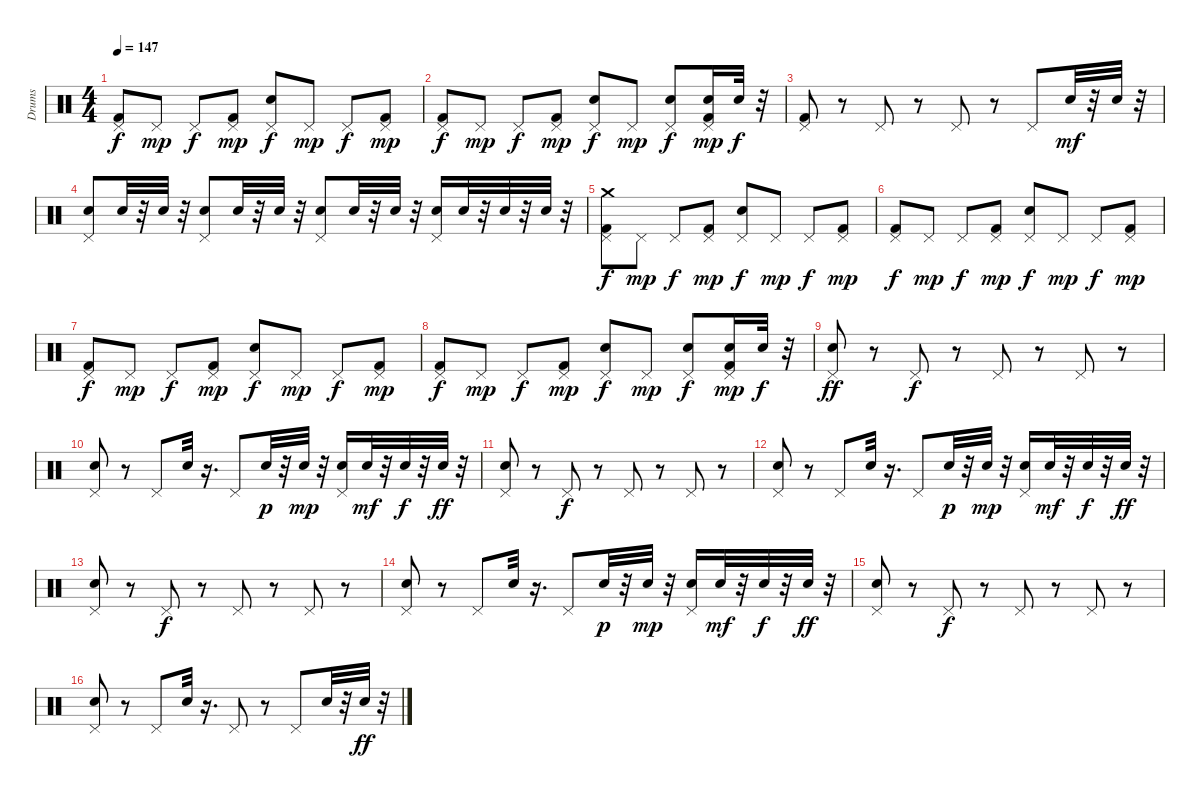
\track ("Drums" "Drums") {instrument percussion}
\staff {score}
\articulation defaults
\ts (4 4)
\tempo 147
\clef neutral
\ks c
("Pedal Hi-Hat (hit)" "Kick (hit) 2").8{dy f} "Pedal Hi-Hat (hit)".8{dy mp} "Pedal Hi-Hat (hit)".8{dy f} ("Pedal Hi-Hat (hit)" "Kick (hit) 2").8{dy mp} ("Pedal Hi-Hat (hit)" "Snare (hit) 2").8{dy f} "Pedal Hi-Hat (hit)".8{dy mp} "Pedal Hi-Hat (hit)".8{dy f} ("Pedal Hi-Hat (hit)" "Kick (hit) 2").8{dy mp} |
("Pedal Hi-Hat (hit)" "Kick (hit) 2").8{dy f} "Pedal Hi-Hat (hit)".8{dy mp} "Pedal Hi-Hat (hit)".8{dy f} ("Pedal Hi-Hat (hit)" "Kick (hit) 2").8{dy mp} ("Pedal Hi-Hat (hit)" "Snare (hit) 2").8{dy f} "Pedal Hi-Hat (hit)".8{dy mp} ("Pedal Hi-Hat (hit)" "Snare (hit) 2").8{dy f} ("Pedal Hi-Hat (hit)" "Snare (hit) 2" "Kick (hit) 2").16{dy mp} "Snare (hit) 2".32{dy f} r.32 |
("Pedal Hi-Hat (hit)" "Kick (hit) 2").8 r.8 "Pedal Hi-Hat (hit)".8 r.8 "Pedal Hi-Hat (hit)".8 r.8 "Pedal Hi-Hat (hit)".8 "Snare (hit) 2".32{dy mf} r.32 "Snare (hit) 2".32 r.32 |
("Pedal Hi-Hat (hit)" "Snare (hit) 2").8 "Snare (hit) 2".32 r.32 "Snare (hit) 2".32 r.32 ("Pedal Hi-Hat (hit)" "Snare (hit) 2").8 "Snare (hit) 2".32 r.32 "Snare (hit) 2".32 r.32 ("Pedal Hi-Hat (hit)" "Snare (hit) 2").8 "Snare (hit) 2".32 r.32 "Snare (hit) 2".32 r.32 ("Pedal Hi-Hat (hit)" "Snare (hit) 2").16 "Snare (hit) 2".32 r.32 "Snare (hit) 2".32 r.32 "Snare (hit) 2".32 r.32 |
("Pedal Hi-Hat (hit)" "Kick (hit) 2" "Crash medium (hit)").8{dy f} "Pedal Hi-Hat (hit)".8{dy mp} "Pedal Hi-Hat (hit)".8{dy f} ("Pedal Hi-Hat (hit)" "Kick (hit) 2").8{dy mp} ("Pedal Hi-Hat (hit)" "Snare (hit) 2").8{dy f} "Pedal Hi-Hat (hit)".8{dy mp} "Pedal Hi-Hat (hit)".8{dy f} ("Pedal Hi-Hat (hit)" "Kick (hit) 2").8{dy mp} |
("Pedal Hi-Hat (hit)" "Kick (hit) 2").8{dy f} "Pedal Hi-Hat (hit)".8{dy mp} "Pedal Hi-Hat (hit)".8{dy f} ("Pedal Hi-Hat (hit)" "Kick (hit) 2").8{dy mp} ("Pedal Hi-Hat (hit)" "Snare (hit) 2").8{dy f} "Pedal Hi-Hat (hit)".8{dy mp} "Pedal Hi-Hat (hit)".8{dy f} ("Pedal Hi-Hat (hit)" "Kick (hit) 2").8{dy mp} |
("Pedal Hi-Hat (hit)" "Kick (hit) 2").8{dy f} "Pedal Hi-Hat (hit)".8{dy mp} "Pedal Hi-Hat (hit)".8{dy f} ("Pedal Hi-Hat (hit)" "Kick (hit) 2").8{dy mp} ("Pedal Hi-Hat (hit)" "Snare (hit) 2").8{dy f} "Pedal Hi-Hat (hit)".8{dy mp} "Pedal Hi-Hat (hit)".8{dy f} ("Pedal Hi-Hat (hit)" "Kick (hit) 2").8{dy mp} |
("Pedal Hi-Hat (hit)" "Kick (hit) 2").8{dy f} "Pedal Hi-Hat (hit)".8{dy mp} "Pedal Hi-Hat (hit)".8{dy f} ("Pedal Hi-Hat (hit)" "Kick (hit) 2").8{dy mp} ("Pedal Hi-Hat (hit)" "Snare (hit) 2").8{dy f} "Pedal Hi-Hat (hit)".8{dy mp} ("Pedal Hi-Hat (hit)" "Snare (hit) 2").8{dy f} ("Pedal Hi-Hat (hit)" "Snare (hit) 2" "Kick (hit) 2").16{dy mp} "Snare (hit) 2".32{dy f} r.32 |
("Pedal Hi-Hat (hit)" "Snare (hit) 2").8{dy ff} r.8 "Pedal Hi-Hat (hit)".8{dy f} r.8 "Pedal Hi-Hat (hit)".8 r.8 "Pedal Hi-Hat (hit)".8 r.8 |
("Pedal Hi-Hat (hit)" "Snare (hit) 2").8 r.8 "Pedal Hi-Hat (hit)".8 "Snare (hit) 2".32 r.16{d} "Pedal Hi-Hat (hit)".8 "Snare (hit) 2".32{dy p} r.32 "Snare (hit) 2".32{dy mp} r.32 ("Pedal Hi-Hat (hit)" "Snare (hit) 2").16 "Snare (hit) 2".32{dy mf} r.32 "Snare (hit) 2".32{dy f} r.32 "Snare (hit) 2".32{dy ff} r.32 |
("Pedal Hi-Hat (hit)" "Snare (hit) 2").8 r.8 "Pedal Hi-Hat (hit)".8{dy f} r.8 "Pedal Hi-Hat (hit)".8 r.8 "Pedal Hi-Hat (hit)".8 r.8 |
("Pedal Hi-Hat (hit)" "Snare (hit) 2").8 r.8 "Pedal Hi-Hat (hit)".8 "Snare (hit) 2".32 r.16{d} "Pedal Hi-Hat (hit)".8 "Snare (hit) 2".32{dy p} r.32 "Snare (hit) 2".32{dy mp} r.32 ("Pedal Hi-Hat (hit)" "Snare (hit) 2").16 "Snare (hit) 2".32{dy mf} r.32 "Snare (hit) 2".32{dy f} r.32 "Snare (hit) 2".32{dy ff} r.32 |
("Pedal Hi-Hat (hit)" "Snare (hit) 2").8 r.8 "Pedal Hi-Hat (hit)".8{dy f} r.8 "Pedal Hi-Hat (hit)".8 r.8 "Pedal Hi-Hat (hit)".8 r.8 |
("Pedal Hi-Hat (hit)" "Snare (hit) 2").8 r.8 "Pedal Hi-Hat (hit)".8 "Snare (hit) 2".32 r.16{d} "Pedal Hi-Hat (hit)".8 "Snare (hit) 2".32{dy p} r.32 "Snare (hit) 2".32{dy mp} r.32 ("Pedal Hi-Hat (hit)" "Snare (hit) 2").16 "Snare (hit) 2".32{dy mf} r.32 "Snare (hit) 2".32{dy f} r.32 "Snare (hit) 2".32{dy ff} r.32 |
("Pedal Hi-Hat (hit)" "Snare (hit) 2").8 r.8 "Pedal Hi-Hat (hit)".8{dy f} r.8 "Pedal Hi-Hat (hit)".8 r.8 "Pedal Hi-Hat (hit)".8 r.8 |
("Pedal Hi-Hat (hit)" "Snare (hit) 2").8 r.8 "Pedal Hi-Hat (hit)".8 "Snare (hit) 2".32 r.16{d} "Pedal Hi-Hat (hit)".8 r.8 "Pedal Hi-Hat (hit)".8 "Snare (hit) 2".32 r.32 "Snare (hit) 2".32{dy ff} r.32
